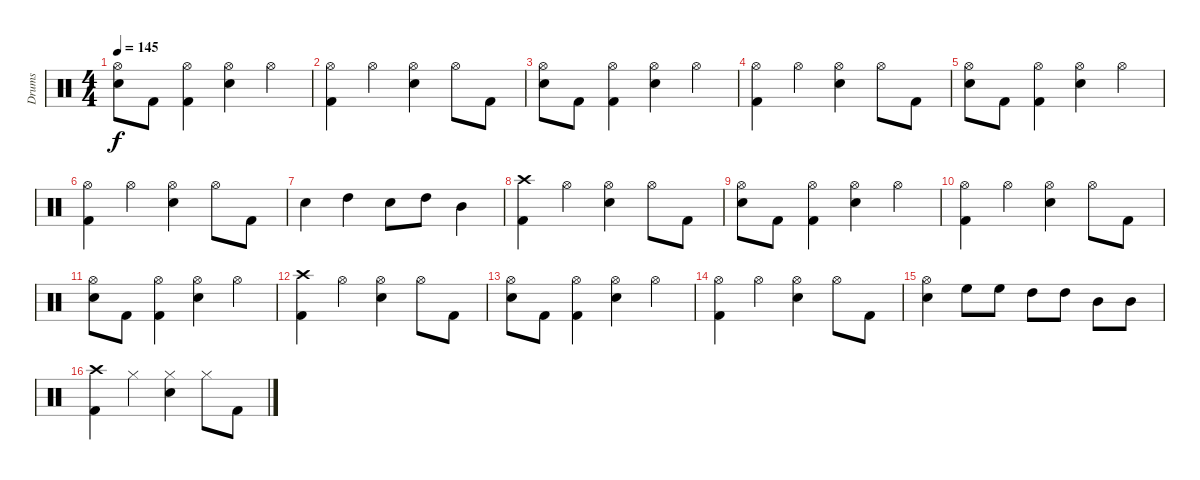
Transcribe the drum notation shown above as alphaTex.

\track ("Drums" "Drums") {instrument percussion}
\staff {score}
\articulation defaults
\ts (4 4)
\tempo 145
\clef neutral
\ks c
("Hi-Hat (open)" "Snare (hit) 2").8{dy f} "Kick (hit) 2".8 ("Hi-Hat (open)" "Kick (hit) 2").4 ("Hi-Hat (open)" "Snare (hit) 2").4 "Hi-Hat (open)".4 |
("Hi-Hat (open)" "Kick (hit) 2").4 "Hi-Hat (open)".4 ("Hi-Hat (open)" "Snare (hit) 2").4 "Hi-Hat (open)".8 "Kick (hit) 2".8 |
("Hi-Hat (open)" "Snare (hit) 2").8 "Kick (hit) 2".8 ("Hi-Hat (open)" "Kick (hit) 2").4 ("Hi-Hat (open)" "Snare (hit) 2").4 "Hi-Hat (open)".4 |
("Hi-Hat (open)" "Kick (hit) 2").4 "Hi-Hat (open)".4 ("Hi-Hat (open)" "Snare (hit) 2").4 "Hi-Hat (open)".8 "Kick (hit) 2".8 |
("Hi-Hat (open)" "Snare (hit) 2").8 "Kick (hit) 2".8 ("Hi-Hat (open)" "Kick (hit) 2").4 ("Hi-Hat (open)" "Snare (hit) 2").4 "Hi-Hat (open)".4 |
("Hi-Hat (open)" "Kick (hit) 2").4 "Hi-Hat (open)".4 ("Hi-Hat (open)" "Snare (hit) 2").4 "Hi-Hat (open)".8 "Kick (hit) 2".8 |
"Snare (hit) 2".4 "High Tom (hit)".4 "Snare (hit) 2".8 "High Tom (hit)".8 "Mid Tom (hit)".4 |
("Crash high (hit)" "Kick (hit) 2").4 "Hi-Hat (open)".4 ("Hi-Hat (open)" "Snare (hit) 2").4 "Hi-Hat (open)".8 "Kick (hit) 2".8 |
("Hi-Hat (open)" "Snare (hit) 2").8 "Kick (hit) 2".8 ("Hi-Hat (open)" "Kick (hit) 2").4 ("Hi-Hat (open)" "Snare (hit) 2").4 "Hi-Hat (open)".4 |
("Hi-Hat (open)" "Kick (hit) 2").4 "Hi-Hat (open)".4 ("Hi-Hat (open)" "Snare (hit) 2").4 "Hi-Hat (open)".8 "Kick (hit) 2".8 |
("Hi-Hat (open)" "Snare (hit) 2").8 "Kick (hit) 2".8 ("Hi-Hat (open)" "Kick (hit) 2").4 ("Hi-Hat (open)" "Snare (hit) 2").4 "Hi-Hat (open)".4 |
("Crash high (hit)" "Kick (hit) 2").4 "Hi-Hat (open)".4 ("Hi-Hat (open)" "Snare (hit) 2").4 "Hi-Hat (open)".8 "Kick (hit) 2".8 |
("Hi-Hat (open)" "Snare (hit) 2").8 "Kick (hit) 2".8 ("Hi-Hat (open)" "Kick (hit) 2").4 ("Hi-Hat (open)" "Snare (hit) 2").4 "Hi-Hat (open)".4 |
("Hi-Hat (open)" "Kick (hit) 2").4 "Hi-Hat (open)".4 ("Hi-Hat (open)" "Snare (hit) 2").4 "Hi-Hat (open)".8 "Kick (hit) 2".8 |
("Hi-Hat (open)" "Snare (hit) 2").4 "High Floor Tom (hit)".8 "High Floor Tom (hit)".8 "High Tom (hit)".8 "High Tom (hit)".8 "Mid Tom (hit)".8 "Mid Tom (hit)".8 |
("Crash high (hit)" "Kick (hit) 2").4 "Hi-Hat (closed)".4 ("Hi-Hat (closed)" "Snare (hit) 2").4 "Hi-Hat (closed)".8 "Kick (hit) 2".8
